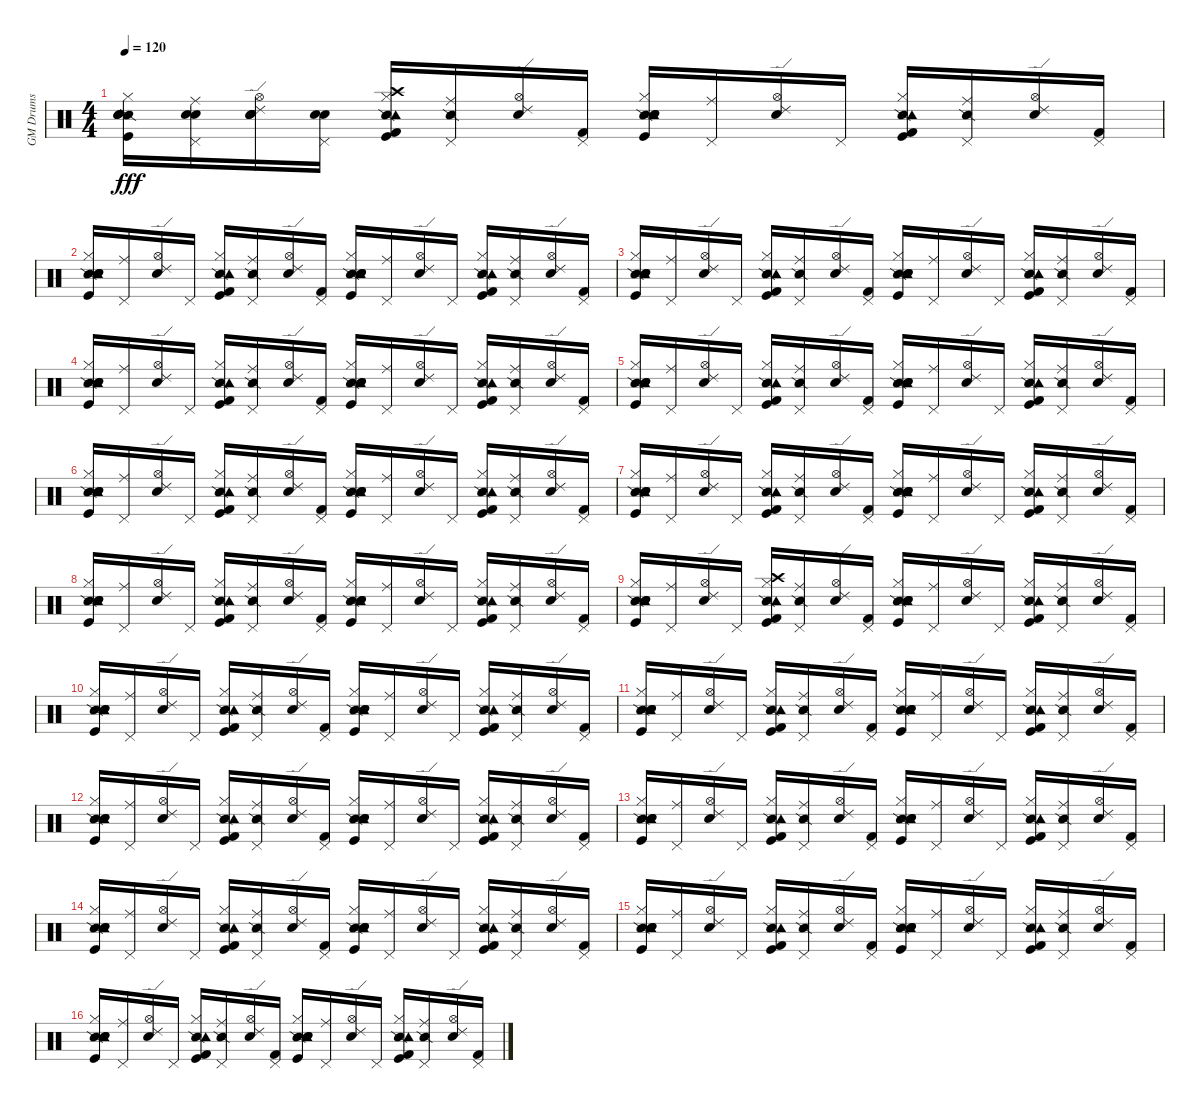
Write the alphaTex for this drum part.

\track ("GM Drums" "GM Drums") {instrument percussion}
\staff {score}
\articulation defaults
\ts (4 4)
\tempo 120
\clef neutral
\ks c
("Snare (side stick) 2" "Kick (hit)" "Snare (hit) 2" "Hand Clap (hit)" "Electric Snare (hit)" "Hi-Hat (closed)").16{dy fff} ("Snare (hit) 2" "Electric Snare (hit)" "Pedal Hi-Hat (hit)" "Ride (middle)").16 ("Metronome (bell)" "Snare (hit) 2" "Electric Snare (hit)" "Hi-Hat (open)" "Ride (edge) 2").16 ("Snare (hit) 2" "Electric Snare (hit)" "Pedal Hi-Hat (hit)").16 ("Snare (side stick) 2" "Kick (hit)" "Kick (hit) 2" "Hi-Hat (closed)" "Crash high (hit)" "Tambourine (hit)").16 ("Snare (side stick) 2" "Pedal Hi-Hat (hit)" "Ride (middle)").16 ("Metronome (bell)" "Hi-Hat (open)" "Ride (edge) 2").16 ("Kick (hit) 2" "Pedal Hi-Hat (hit)").16 ("Snare (side stick) 2" "Kick (hit)" "Snare (hit) 2" "Hand Clap (hit)" "Hi-Hat (closed)" "Tambourine (hit)").16 ("Pedal Hi-Hat (hit)" "Ride (middle)").16 ("Metronome (bell)" "Hi-Hat (open)" "Ride (edge) 2").16 "Pedal Hi-Hat (hit)".16 ("Snare (side stick) 2" "Kick (hit)" "Kick (hit) 2" "Hi-Hat (closed)" "Tambourine (hit)").16 ("Snare (side stick) 2" "Pedal Hi-Hat (hit)" "Ride (middle)").16 ("Metronome (bell)" "Hi-Hat (open)" "Ride (edge) 2").16 ("Kick (hit) 2" "Pedal Hi-Hat (hit)").16 |
("Snare (side stick) 2" "Kick (hit)" "Snare (hit) 2" "Hand Clap (hit)" "Hi-Hat (closed)" "Tambourine (hit)").16 ("Pedal Hi-Hat (hit)" "Ride (middle)").16 ("Metronome (bell)" "Hi-Hat (open)" "Ride (edge) 2").16 "Pedal Hi-Hat (hit)".16 ("Snare (side stick) 2" "Kick (hit)" "Kick (hit) 2" "Hi-Hat (closed)" "Tambourine (hit)").16 ("Snare (side stick) 2" "Pedal Hi-Hat (hit)" "Ride (middle)").16 ("Metronome (bell)" "Hi-Hat (open)" "Ride (edge) 2").16 ("Kick (hit) 2" "Pedal Hi-Hat (hit)").16 ("Snare (side stick) 2" "Kick (hit)" "Snare (hit) 2" "Hand Clap (hit)" "Hi-Hat (closed)" "Tambourine (hit)").16 ("Pedal Hi-Hat (hit)" "Ride (middle)").16 ("Metronome (bell)" "Hi-Hat (open)" "Ride (edge) 2").16 "Pedal Hi-Hat (hit)".16 ("Snare (side stick) 2" "Kick (hit)" "Kick (hit) 2" "Hi-Hat (closed)" "Tambourine (hit)").16 ("Snare (side stick) 2" "Pedal Hi-Hat (hit)" "Ride (middle)").16 ("Metronome (bell)" "Hi-Hat (open)" "Ride (edge) 2").16 ("Kick (hit) 2" "Pedal Hi-Hat (hit)").16 |
("Snare (side stick) 2" "Kick (hit)" "Snare (hit) 2" "Hand Clap (hit)" "Hi-Hat (closed)" "Tambourine (hit)").16 ("Pedal Hi-Hat (hit)" "Ride (middle)").16 ("Metronome (bell)" "Hi-Hat (open)" "Ride (edge) 2").16 "Pedal Hi-Hat (hit)".16 ("Snare (side stick) 2" "Kick (hit)" "Kick (hit) 2" "Hi-Hat (closed)" "Tambourine (hit)").16 ("Snare (side stick) 2" "Pedal Hi-Hat (hit)" "Ride (middle)").16 ("Metronome (bell)" "Hi-Hat (open)" "Ride (edge) 2").16 ("Kick (hit) 2" "Pedal Hi-Hat (hit)").16 ("Snare (side stick) 2" "Kick (hit)" "Snare (hit) 2" "Hand Clap (hit)" "Hi-Hat (closed)" "Tambourine (hit)").16 ("Pedal Hi-Hat (hit)" "Ride (middle)").16 ("Metronome (bell)" "Hi-Hat (open)" "Ride (edge) 2").16 "Pedal Hi-Hat (hit)".16 ("Snare (side stick) 2" "Kick (hit)" "Kick (hit) 2" "Hi-Hat (closed)" "Tambourine (hit)").16 ("Snare (side stick) 2" "Pedal Hi-Hat (hit)" "Ride (middle)").16 ("Metronome (bell)" "Hi-Hat (open)" "Ride (edge) 2").16 ("Kick (hit) 2" "Pedal Hi-Hat (hit)").16 |
("Snare (side stick) 2" "Kick (hit)" "Snare (hit) 2" "Hand Clap (hit)" "Hi-Hat (closed)" "Tambourine (hit)").16 ("Pedal Hi-Hat (hit)" "Ride (middle)").16 ("Metronome (bell)" "Hi-Hat (open)" "Ride (edge) 2").16 "Pedal Hi-Hat (hit)".16 ("Snare (side stick) 2" "Kick (hit)" "Kick (hit) 2" "Hi-Hat (closed)" "Tambourine (hit)").16 ("Snare (side stick) 2" "Pedal Hi-Hat (hit)" "Ride (middle)").16 ("Metronome (bell)" "Hi-Hat (open)" "Ride (edge) 2").16 ("Kick (hit) 2" "Pedal Hi-Hat (hit)").16 ("Snare (side stick) 2" "Kick (hit)" "Snare (hit) 2" "Hand Clap (hit)" "Hi-Hat (closed)" "Tambourine (hit)").16 ("Pedal Hi-Hat (hit)" "Ride (middle)").16 ("Metronome (bell)" "Hi-Hat (open)" "Ride (edge) 2").16 "Pedal Hi-Hat (hit)".16 ("Snare (side stick) 2" "Kick (hit)" "Kick (hit) 2" "Hi-Hat (closed)" "Tambourine (hit)").16 ("Snare (side stick) 2" "Pedal Hi-Hat (hit)" "Ride (middle)").16 ("Metronome (bell)" "Hi-Hat (open)" "Ride (edge) 2").16 ("Kick (hit) 2" "Pedal Hi-Hat (hit)").16 |
("Snare (side stick) 2" "Kick (hit)" "Snare (hit) 2" "Hand Clap (hit)" "Hi-Hat (closed)" "Tambourine (hit)").16 ("Pedal Hi-Hat (hit)" "Ride (middle)").16 ("Metronome (bell)" "Hi-Hat (open)" "Ride (edge) 2").16 "Pedal Hi-Hat (hit)".16 ("Snare (side stick) 2" "Kick (hit)" "Kick (hit) 2" "Hi-Hat (closed)" "Tambourine (hit)").16 ("Snare (side stick) 2" "Pedal Hi-Hat (hit)" "Ride (middle)").16 ("Metronome (bell)" "Hi-Hat (open)" "Ride (edge) 2").16 ("Kick (hit) 2" "Pedal Hi-Hat (hit)").16 ("Snare (side stick) 2" "Kick (hit)" "Snare (hit) 2" "Hand Clap (hit)" "Hi-Hat (closed)" "Tambourine (hit)").16 ("Pedal Hi-Hat (hit)" "Ride (middle)").16 ("Metronome (bell)" "Hi-Hat (open)" "Ride (edge) 2").16 "Pedal Hi-Hat (hit)".16 ("Snare (side stick) 2" "Kick (hit)" "Kick (hit) 2" "Hi-Hat (closed)" "Tambourine (hit)").16 ("Snare (side stick) 2" "Pedal Hi-Hat (hit)" "Ride (middle)").16 ("Metronome (bell)" "Hi-Hat (open)" "Ride (edge) 2").16 ("Kick (hit) 2" "Pedal Hi-Hat (hit)").16 |
("Snare (side stick) 2" "Kick (hit)" "Snare (hit) 2" "Hand Clap (hit)" "Hi-Hat (closed)" "Tambourine (hit)").16 ("Pedal Hi-Hat (hit)" "Ride (middle)").16 ("Metronome (bell)" "Hi-Hat (open)" "Ride (edge) 2").16 "Pedal Hi-Hat (hit)".16 ("Snare (side stick) 2" "Kick (hit)" "Kick (hit) 2" "Hi-Hat (closed)" "Tambourine (hit)").16 ("Snare (side stick) 2" "Pedal Hi-Hat (hit)" "Ride (middle)").16 ("Metronome (bell)" "Hi-Hat (open)" "Ride (edge) 2").16 ("Kick (hit) 2" "Pedal Hi-Hat (hit)").16 ("Snare (side stick) 2" "Kick (hit)" "Snare (hit) 2" "Hand Clap (hit)" "Hi-Hat (closed)" "Tambourine (hit)").16 ("Pedal Hi-Hat (hit)" "Ride (middle)").16 ("Metronome (bell)" "Hi-Hat (open)" "Ride (edge) 2").16 "Pedal Hi-Hat (hit)".16 ("Snare (side stick) 2" "Kick (hit)" "Kick (hit) 2" "Hi-Hat (closed)" "Tambourine (hit)").16 ("Snare (side stick) 2" "Pedal Hi-Hat (hit)" "Ride (middle)").16 ("Metronome (bell)" "Hi-Hat (open)" "Ride (edge) 2").16 ("Kick (hit) 2" "Pedal Hi-Hat (hit)").16 |
("Snare (side stick) 2" "Kick (hit)" "Snare (hit) 2" "Hand Clap (hit)" "Hi-Hat (closed)" "Tambourine (hit)").16 ("Pedal Hi-Hat (hit)" "Ride (middle)").16 ("Metronome (bell)" "Hi-Hat (open)" "Ride (edge) 2").16 "Pedal Hi-Hat (hit)".16 ("Snare (side stick) 2" "Kick (hit)" "Kick (hit) 2" "Hi-Hat (closed)" "Tambourine (hit)").16 ("Snare (side stick) 2" "Pedal Hi-Hat (hit)" "Ride (middle)").16 ("Metronome (bell)" "Hi-Hat (open)" "Ride (edge) 2").16 ("Kick (hit) 2" "Pedal Hi-Hat (hit)").16 ("Snare (side stick) 2" "Kick (hit)" "Snare (hit) 2" "Hand Clap (hit)" "Hi-Hat (closed)" "Tambourine (hit)").16 ("Pedal Hi-Hat (hit)" "Ride (middle)").16 ("Metronome (bell)" "Hi-Hat (open)" "Ride (edge) 2").16 "Pedal Hi-Hat (hit)".16 ("Snare (side stick) 2" "Kick (hit)" "Kick (hit) 2" "Hi-Hat (closed)" "Tambourine (hit)").16 ("Snare (side stick) 2" "Pedal Hi-Hat (hit)" "Ride (middle)").16 ("Metronome (bell)" "Hi-Hat (open)" "Ride (edge) 2").16 ("Kick (hit) 2" "Pedal Hi-Hat (hit)").16 |
("Snare (side stick) 2" "Kick (hit)" "Snare (hit) 2" "Hand Clap (hit)" "Hi-Hat (closed)" "Tambourine (hit)").16 ("Pedal Hi-Hat (hit)" "Ride (middle)").16 ("Metronome (bell)" "Hi-Hat (open)" "Ride (edge) 2").16 "Pedal Hi-Hat (hit)".16 ("Snare (side stick) 2" "Kick (hit)" "Kick (hit) 2" "Hi-Hat (closed)" "Tambourine (hit)").16 ("Snare (side stick) 2" "Pedal Hi-Hat (hit)" "Ride (middle)").16 ("Metronome (bell)" "Hi-Hat (open)" "Ride (edge) 2").16 ("Kick (hit) 2" "Pedal Hi-Hat (hit)").16 ("Snare (side stick) 2" "Kick (hit)" "Snare (hit) 2" "Hand Clap (hit)" "Hi-Hat (closed)" "Tambourine (hit)").16 ("Pedal Hi-Hat (hit)" "Ride (middle)").16 ("Metronome (bell)" "Hi-Hat (open)" "Ride (edge) 2").16 "Pedal Hi-Hat (hit)".16 ("Snare (side stick) 2" "Kick (hit)" "Kick (hit) 2" "Hi-Hat (closed)" "Tambourine (hit)").16 ("Snare (side stick) 2" "Pedal Hi-Hat (hit)" "Ride (middle)").16 ("Metronome (bell)" "Hi-Hat (open)" "Ride (edge) 2").16 ("Kick (hit) 2" "Pedal Hi-Hat (hit)").16 |
("Snare (side stick) 2" "Kick (hit)" "Snare (hit) 2" "Hand Clap (hit)" "Hi-Hat (closed)" "Tambourine (hit)").16 ("Pedal Hi-Hat (hit)" "Ride (middle)").16 ("Metronome (bell)" "Hi-Hat (open)" "Ride (edge) 2").16 "Pedal Hi-Hat (hit)".16 ("Snare (side stick) 2" "Kick (hit)" "Kick (hit) 2" "Hi-Hat (closed)" "Crash high (hit)" "Tambourine (hit)").16 ("Snare (side stick) 2" "Pedal Hi-Hat (hit)" "Ride (middle)").16 ("Metronome (bell)" "Hi-Hat (open)" "Ride (edge) 2").16 ("Kick (hit) 2" "Pedal Hi-Hat (hit)").16 ("Snare (side stick) 2" "Kick (hit)" "Snare (hit) 2" "Hand Clap (hit)" "Hi-Hat (closed)" "Tambourine (hit)").16 ("Pedal Hi-Hat (hit)" "Ride (middle)").16 ("Metronome (bell)" "Hi-Hat (open)" "Ride (edge) 2").16 "Pedal Hi-Hat (hit)".16 ("Snare (side stick) 2" "Kick (hit)" "Kick (hit) 2" "Hi-Hat (closed)" "Tambourine (hit)").16 ("Snare (side stick) 2" "Pedal Hi-Hat (hit)" "Ride (middle)").16 ("Metronome (bell)" "Hi-Hat (open)" "Ride (edge) 2").16 ("Kick (hit) 2" "Pedal Hi-Hat (hit)").16 |
("Snare (side stick) 2" "Kick (hit)" "Snare (hit) 2" "Hand Clap (hit)" "Hi-Hat (closed)" "Tambourine (hit)").16 ("Pedal Hi-Hat (hit)" "Ride (middle)").16 ("Metronome (bell)" "Hi-Hat (open)" "Ride (edge) 2").16 "Pedal Hi-Hat (hit)".16 ("Snare (side stick) 2" "Kick (hit)" "Kick (hit) 2" "Hi-Hat (closed)" "Tambourine (hit)").16 ("Snare (side stick) 2" "Pedal Hi-Hat (hit)" "Ride (middle)").16 ("Metronome (bell)" "Hi-Hat (open)" "Ride (edge) 2").16 ("Kick (hit) 2" "Pedal Hi-Hat (hit)").16 ("Snare (side stick) 2" "Kick (hit)" "Snare (hit) 2" "Hand Clap (hit)" "Hi-Hat (closed)" "Tambourine (hit)").16 ("Pedal Hi-Hat (hit)" "Ride (middle)").16 ("Metronome (bell)" "Hi-Hat (open)" "Ride (edge) 2").16 "Pedal Hi-Hat (hit)".16 ("Snare (side stick) 2" "Kick (hit)" "Kick (hit) 2" "Hi-Hat (closed)" "Tambourine (hit)").16 ("Snare (side stick) 2" "Pedal Hi-Hat (hit)" "Ride (middle)").16 ("Metronome (bell)" "Hi-Hat (open)" "Ride (edge) 2").16 ("Kick (hit) 2" "Pedal Hi-Hat (hit)").16 |
("Snare (side stick) 2" "Kick (hit)" "Snare (hit) 2" "Hand Clap (hit)" "Hi-Hat (closed)" "Tambourine (hit)").16 ("Pedal Hi-Hat (hit)" "Ride (middle)").16 ("Metronome (bell)" "Hi-Hat (open)" "Ride (edge) 2").16 "Pedal Hi-Hat (hit)".16 ("Snare (side stick) 2" "Kick (hit)" "Kick (hit) 2" "Hi-Hat (closed)" "Tambourine (hit)").16 ("Snare (side stick) 2" "Pedal Hi-Hat (hit)" "Ride (middle)").16 ("Metronome (bell)" "Hi-Hat (open)" "Ride (edge) 2").16 ("Kick (hit) 2" "Pedal Hi-Hat (hit)").16 ("Snare (side stick) 2" "Kick (hit)" "Snare (hit) 2" "Hand Clap (hit)" "Hi-Hat (closed)" "Tambourine (hit)").16 ("Pedal Hi-Hat (hit)" "Ride (middle)").16 ("Metronome (bell)" "Hi-Hat (open)" "Ride (edge) 2").16 "Pedal Hi-Hat (hit)".16 ("Snare (side stick) 2" "Kick (hit)" "Kick (hit) 2" "Hi-Hat (closed)" "Tambourine (hit)").16 ("Snare (side stick) 2" "Pedal Hi-Hat (hit)" "Ride (middle)").16 ("Metronome (bell)" "Hi-Hat (open)" "Ride (edge) 2").16 ("Kick (hit) 2" "Pedal Hi-Hat (hit)").16 |
("Snare (side stick) 2" "Kick (hit)" "Snare (hit) 2" "Hand Clap (hit)" "Hi-Hat (closed)" "Tambourine (hit)").16 ("Pedal Hi-Hat (hit)" "Ride (middle)").16 ("Metronome (bell)" "Hi-Hat (open)" "Ride (edge) 2").16 "Pedal Hi-Hat (hit)".16 ("Snare (side stick) 2" "Kick (hit)" "Kick (hit) 2" "Hi-Hat (closed)" "Tambourine (hit)").16 ("Snare (side stick) 2" "Pedal Hi-Hat (hit)" "Ride (middle)").16 ("Metronome (bell)" "Hi-Hat (open)" "Ride (edge) 2").16 ("Kick (hit) 2" "Pedal Hi-Hat (hit)").16 ("Snare (side stick) 2" "Kick (hit)" "Snare (hit) 2" "Hand Clap (hit)" "Hi-Hat (closed)" "Tambourine (hit)").16 ("Pedal Hi-Hat (hit)" "Ride (middle)").16 ("Metronome (bell)" "Hi-Hat (open)" "Ride (edge) 2").16 "Pedal Hi-Hat (hit)".16 ("Snare (side stick) 2" "Kick (hit)" "Kick (hit) 2" "Hi-Hat (closed)" "Tambourine (hit)").16 ("Snare (side stick) 2" "Pedal Hi-Hat (hit)" "Ride (middle)").16 ("Metronome (bell)" "Hi-Hat (open)" "Ride (edge) 2").16 ("Kick (hit) 2" "Pedal Hi-Hat (hit)").16 |
("Snare (side stick) 2" "Kick (hit)" "Snare (hit) 2" "Hand Clap (hit)" "Hi-Hat (closed)" "Tambourine (hit)").16 ("Pedal Hi-Hat (hit)" "Ride (middle)").16 ("Metronome (bell)" "Hi-Hat (open)" "Ride (edge) 2").16 "Pedal Hi-Hat (hit)".16 ("Snare (side stick) 2" "Kick (hit)" "Kick (hit) 2" "Hi-Hat (closed)" "Tambourine (hit)").16 ("Snare (side stick) 2" "Pedal Hi-Hat (hit)" "Ride (middle)").16 ("Metronome (bell)" "Hi-Hat (open)" "Ride (edge) 2").16 ("Kick (hit) 2" "Pedal Hi-Hat (hit)").16 ("Snare (side stick) 2" "Kick (hit)" "Snare (hit) 2" "Hand Clap (hit)" "Hi-Hat (closed)" "Tambourine (hit)").16 ("Pedal Hi-Hat (hit)" "Ride (middle)").16 ("Metronome (bell)" "Hi-Hat (open)" "Ride (edge) 2").16 "Pedal Hi-Hat (hit)".16 ("Snare (side stick) 2" "Kick (hit)" "Kick (hit) 2" "Hi-Hat (closed)" "Tambourine (hit)").16 ("Snare (side stick) 2" "Pedal Hi-Hat (hit)" "Ride (middle)").16 ("Metronome (bell)" "Hi-Hat (open)" "Ride (edge) 2").16 ("Kick (hit) 2" "Pedal Hi-Hat (hit)").16 |
("Snare (side stick) 2" "Kick (hit)" "Snare (hit) 2" "Hand Clap (hit)" "Hi-Hat (closed)" "Tambourine (hit)").16 ("Pedal Hi-Hat (hit)" "Ride (middle)").16 ("Metronome (bell)" "Hi-Hat (open)" "Ride (edge) 2").16 "Pedal Hi-Hat (hit)".16 ("Snare (side stick) 2" "Kick (hit)" "Kick (hit) 2" "Hi-Hat (closed)" "Tambourine (hit)").16 ("Snare (side stick) 2" "Pedal Hi-Hat (hit)" "Ride (middle)").16 ("Metronome (bell)" "Hi-Hat (open)" "Ride (edge) 2").16 ("Kick (hit) 2" "Pedal Hi-Hat (hit)").16 ("Snare (side stick) 2" "Kick (hit)" "Snare (hit) 2" "Hand Clap (hit)" "Hi-Hat (closed)" "Tambourine (hit)").16 ("Pedal Hi-Hat (hit)" "Ride (middle)").16 ("Metronome (bell)" "Hi-Hat (open)" "Ride (edge) 2").16 "Pedal Hi-Hat (hit)".16 ("Snare (side stick) 2" "Kick (hit)" "Kick (hit) 2" "Hi-Hat (closed)" "Tambourine (hit)").16 ("Snare (side stick) 2" "Pedal Hi-Hat (hit)" "Ride (middle)").16 ("Metronome (bell)" "Hi-Hat (open)" "Ride (edge) 2").16 ("Kick (hit) 2" "Pedal Hi-Hat (hit)").16 |
("Snare (side stick) 2" "Kick (hit)" "Snare (hit) 2" "Hand Clap (hit)" "Hi-Hat (closed)" "Tambourine (hit)").16 ("Pedal Hi-Hat (hit)" "Ride (middle)").16 ("Metronome (bell)" "Hi-Hat (open)" "Ride (edge) 2").16 "Pedal Hi-Hat (hit)".16 ("Snare (side stick) 2" "Kick (hit)" "Kick (hit) 2" "Hi-Hat (closed)" "Tambourine (hit)").16 ("Snare (side stick) 2" "Pedal Hi-Hat (hit)" "Ride (middle)").16 ("Metronome (bell)" "Hi-Hat (open)" "Ride (edge) 2").16 ("Kick (hit) 2" "Pedal Hi-Hat (hit)").16 ("Snare (side stick) 2" "Kick (hit)" "Snare (hit) 2" "Hand Clap (hit)" "Hi-Hat (closed)" "Tambourine (hit)").16 ("Pedal Hi-Hat (hit)" "Ride (middle)").16 ("Metronome (bell)" "Hi-Hat (open)" "Ride (edge) 2").16 "Pedal Hi-Hat (hit)".16 ("Snare (side stick) 2" "Kick (hit)" "Kick (hit) 2" "Hi-Hat (closed)" "Tambourine (hit)").16 ("Snare (side stick) 2" "Pedal Hi-Hat (hit)" "Ride (middle)").16 ("Metronome (bell)" "Hi-Hat (open)" "Ride (edge) 2").16 ("Kick (hit) 2" "Pedal Hi-Hat (hit)").16 |
("Snare (side stick) 2" "Kick (hit)" "Snare (hit) 2" "Hand Clap (hit)" "Hi-Hat (closed)" "Tambourine (hit)").16 ("Pedal Hi-Hat (hit)" "Ride (middle)").16 ("Metronome (bell)" "Hi-Hat (open)" "Ride (edge) 2").16 "Pedal Hi-Hat (hit)".16 ("Snare (side stick) 2" "Kick (hit)" "Kick (hit) 2" "Hi-Hat (closed)" "Tambourine (hit)").16 ("Snare (side stick) 2" "Pedal Hi-Hat (hit)" "Ride (middle)").16 ("Metronome (bell)" "Hi-Hat (open)" "Ride (edge) 2").16 ("Kick (hit) 2" "Pedal Hi-Hat (hit)").16 ("Snare (side stick) 2" "Kick (hit)" "Snare (hit) 2" "Hand Clap (hit)" "Hi-Hat (closed)" "Tambourine (hit)").16 ("Pedal Hi-Hat (hit)" "Ride (middle)").16 ("Metronome (bell)" "Hi-Hat (open)" "Ride (edge) 2").16 "Pedal Hi-Hat (hit)".16 ("Snare (side stick) 2" "Kick (hit)" "Kick (hit) 2" "Hi-Hat (closed)" "Tambourine (hit)").16 ("Snare (side stick) 2" "Pedal Hi-Hat (hit)" "Ride (middle)").16 ("Metronome (bell)" "Hi-Hat (open)" "Ride (edge) 2").16 ("Kick (hit) 2" "Pedal Hi-Hat (hit)").16
